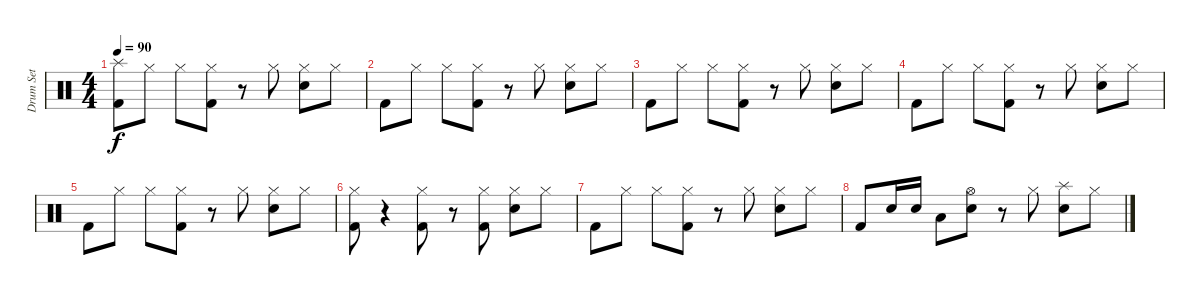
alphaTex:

\track ("Drum Set" "Drum Set") {instrument percussion}
\staff {score}
\articulation defaults
\ts (4 4)
\tempo 90
\clef neutral
\ks c
("Splash (hit)" "Kick (hit) 2").8{dy f} "Hi-Hat (closed)".8 "Hi-Hat (closed)".8 ("Hi-Hat (closed)" "Kick (hit) 2").8 r.8 "Hi-Hat (closed)".8 ("Hi-Hat (closed)" "Snare (hit) 2").8 "Hi-Hat (closed)".8 |
"Kick (hit) 2".8 "Hi-Hat (closed)".8 "Hi-Hat (closed)".8 ("Hi-Hat (closed)" "Kick (hit) 2").8 r.8 "Hi-Hat (closed)".8 ("Hi-Hat (closed)" "Snare (hit) 2").8 "Hi-Hat (closed)".8 |
"Kick (hit) 2".8 "Hi-Hat (closed)".8 "Hi-Hat (closed)".8 ("Hi-Hat (closed)" "Kick (hit) 2").8 r.8 "Hi-Hat (closed)".8 ("Hi-Hat (closed)" "Snare (hit) 2").8 "Hi-Hat (closed)".8 |
"Kick (hit) 2".8 "Hi-Hat (closed)".8 "Hi-Hat (closed)".8 ("Hi-Hat (closed)" "Kick (hit) 2").8 r.8 "Hi-Hat (closed)".8 ("Hi-Hat (closed)" "Snare (hit) 2").8 "Hi-Hat (closed)".8 |
"Kick (hit) 2".8 "Hi-Hat (closed)".8 "Hi-Hat (closed)".8 ("Hi-Hat (closed)" "Kick (hit) 2").8 r.8 "Hi-Hat (closed)".8 ("Hi-Hat (closed)" "Snare (hit) 2").8 "Hi-Hat (closed)".8 |
("Hi-Hat (closed)" "Kick (hit) 2").8 r.4 ("Hi-Hat (closed)" "Kick (hit) 2").8 r.8 ("Hi-Hat (closed)" "Kick (hit) 2").8 ("Hi-Hat (closed)" "Snare (hit) 2").8 "Hi-Hat (closed)".8 |
"Kick (hit) 2".8 "Hi-Hat (closed)".8 "Hi-Hat (closed)".8 ("Hi-Hat (closed)" "Kick (hit) 2").8 r.8 "Hi-Hat (closed)".8 ("Hi-Hat (closed)" "Snare (hit) 2").8 "Hi-Hat (closed)".8 |
"Kick (hit) 2".8 "Snare (hit) 2".16 "Snare (hit) 2".16 "Low Floor Tom (hit)".8 ("Hi-Hat (open)" "Snare (hit) 2").8 r.8 "Hi-Hat (closed)".8 ("Splash (hit)" "Snare (hit) 2").8 "Hi-Hat (closed)".8
